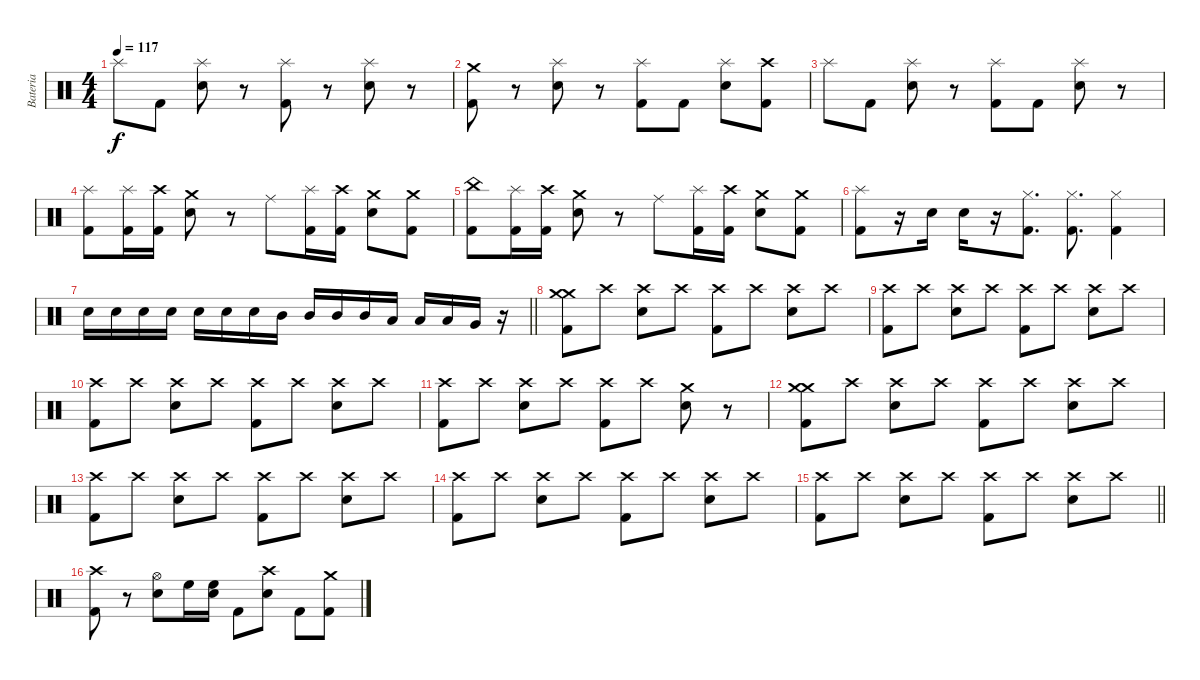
\track ("Bateria" "Bateria") {instrument percussion}
\staff
\articulation defaults
\ts (4 4)
\tempo 117
\clef neutral
\ks c "Splash (hit)".8{dy f} "Kick (hit) 2".8
("Splash (hit)" "Snare (hit) 2").8 r.8 ("Splash (hit)" "Kick (hit) 2").8 r.8 ("Splash (hit)" "Snare (hit) 2").8 r.8 |
("Crash medium (hit)" "Kick (hit) 2").8 r.8 ("Splash (hit)" "Snare (hit) 2").8 r.8 ("Splash (hit)" "Kick (hit) 2").8 "Kick (hit) 2".8 ("Splash (hit)" "Snare (hit) 2").8 ("Crash high (hit)" "Kick (hit) 2").8 |
"Splash (hit)".8 "Kick (hit) 2".8 ("Splash (hit)" "Snare (hit) 2").8 r.8 ("Splash (hit)" "Kick (hit) 2").8 "Kick (hit) 2".8 ("Splash (hit)" "Snare (hit) 2").8 r.8 |
("Splash (hit)" "Kick (hit) 2").8 ("Splash (hit)" "Kick (hit) 2").16 ("Crash high (hit)" "Kick (hit) 2").16 ("Crash medium (hit)" "Snare (hit) 2").8 r.8 "Ride (middle)".8 ("Splash (hit)" "Kick (hit) 2").16 ("Crash high (hit)" "Kick (hit) 2").16 ("Crash medium (hit)" "Snare (hit) 2").8 ("Crash medium (hit)" "Kick (hit) 2").8 |
("China (hit)" "Kick (hit) 2").8 ("Splash (hit)" "Kick (hit) 2").16 ("Crash high (hit)" "Kick (hit) 2").16 ("Crash medium (hit)" "Snare (hit) 2").8 r.8 "Ride (middle)".8 ("Splash (hit)" "Kick (hit) 2").16 ("Crash high (hit)" "Kick (hit) 2").16 ("Crash medium (hit)" "Snare (hit) 2").8 ("Crash medium (hit)" "Kick (hit) 2").8 |
("Splash (hit)" "Kick (hit) 2").8 r.16 "Snare (hit) 2".16 "Snare (hit) 2".16 r.16 ("Hi-Hat (closed)" "Kick (hit) 2").8{d} ("Hi-Hat (closed)" "Kick (hit) 2").8{d} ("Hi-Hat (closed)" "Kick (hit) 2").4 |
\barLineRight lightlight "Snare (hit) 2".16 "Snare (hit) 2".16 "Snare (hit) 2".16 "Snare (hit) 2".16 "Snare (hit) 2".16 "Snare (hit) 2".16 "Snare (hit) 2".16 "Mid Tom (hit)".16 "Mid Tom (hit)".16 "Mid Tom (hit)".16 "Mid Tom (hit)".16 "Low Tom (hit)".16 "Low Tom (hit)".16 "Low Tom (hit)".16 "Very Low Tom (hit)".16
r.16 |
("Crash medium (hit)" "Crash medium (hit)" "Kick (hit) 2").8 "Crash high (hit)".8 ("Crash high (hit)" "Snare (hit) 2").8 "Crash high (hit)".8 ("Crash high (hit)" "Kick (hit) 2").8 "Crash high (hit)".8 ("Crash high (hit)" "Snare (hit) 2").8 "Crash high (hit)".8 |
("Crash high (hit)" "Kick (hit) 2").8 "Crash high (hit)".8 ("Crash high (hit)" "Snare (hit) 2").8 "Crash high (hit)".8 ("Crash high (hit)" "Kick (hit) 2").8 "Crash high (hit)".8 ("Crash high (hit)" "Snare (hit) 2").8 "Crash high (hit)".8 |
("Crash high (hit)" "Kick (hit) 2").8 "Crash high (hit)".8 ("Crash high (hit)" "Snare (hit) 2").8 "Crash high (hit)".8 ("Crash high (hit)" "Kick (hit) 2").8 "Crash high (hit)".8 ("Crash high (hit)" "Snare (hit) 2").8 "Crash high (hit)".8 |
("Crash high (hit)" "Kick (hit) 2").8 "Crash high (hit)".8 ("Crash high (hit)" "Snare (hit) 2").8 "Crash high (hit)".8 ("Crash high (hit)" "Kick (hit) 2").8 "Crash high (hit)".8 ("Crash medium (hit)" "Snare (hit) 2").8 r.8 |
("Crash medium (hit)" "Crash medium (hit)" "Kick (hit) 2").8 "Crash high (hit)".8 ("Crash high (hit)" "Snare (hit) 2").8 "Crash high (hit)".8 ("Crash high (hit)" "Kick (hit) 2").8 "Crash high (hit)".8 ("Crash high (hit)" "Snare (hit) 2").8 "Crash high (hit)".8 |
("Crash high (hit)" "Kick (hit) 2").8 "Crash high (hit)".8 ("Crash high (hit)" "Snare (hit) 2").8 "Crash high (hit)".8 ("Crash high (hit)" "Kick (hit) 2").8 "Crash high (hit)".8 ("Crash high (hit)" "Snare (hit) 2").8 "Crash high (hit)".8 |
("Crash high (hit)" "Kick (hit) 2").8 "Crash high (hit)".8 ("Crash high (hit)" "Snare (hit) 2").8 "Crash high (hit)".8 ("Crash high (hit)" "Kick (hit) 2").8 "Crash high (hit)".8 ("Crash high (hit)" "Snare (hit) 2").8 "Crash high (hit)".8 |
\barLineRight lightlight
("Crash high (hit)" "Kick (hit) 2").8 "Crash high (hit)".8 ("Crash high (hit)" "Snare (hit) 2").8 "Crash high (hit)".8 ("Crash high (hit)" "Kick (hit) 2").8 "Crash high (hit)".8 ("Crash high (hit)" "Snare (hit) 2").8 "Crash high (hit)".8 |
("Crash high (hit)" "Kick (hit) 2").8 r.8 ("Hi-Hat (open)" "Snare (hit) 2").8 "High Floor Tom (hit)".16 ("High Floor Tom (hit)" "Snare (hit) 2").16 "Kick (hit) 2".8 ("Crash high (hit)" "Snare (hit) 2").8 "Kick (hit) 2".8 ("Crash medium (hit)" "Kick (hit) 2").8
